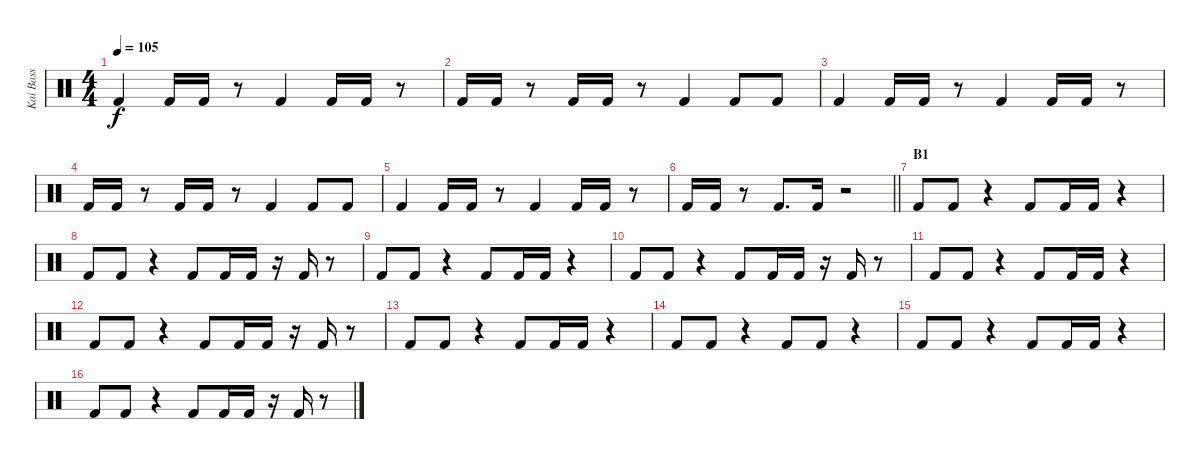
\track ("Kai Bass" "Kai Bass") {instrument percussion}
\staff {score}
\articulation defaults
\ts (4 4)
\tempo 105
\clef neutral
\ks c "Kick (hit) 2".4{dy f} "Kick (hit) 2".16 "Kick (hit) 2".16
r.8 "Kick (hit) 2".4 "Kick (hit) 2".16 "Kick (hit) 2".16 r.8 |
"Kick (hit) 2".16 "Kick (hit) 2".16 r.8 "Kick (hit) 2".16 "Kick (hit) 2".16 r.8 "Kick (hit) 2".4 "Kick (hit) 2".8 "Kick (hit) 2".8 |
"Kick (hit) 2".4 "Kick (hit) 2".16 "Kick (hit) 2".16 r.8 "Kick (hit) 2".4 "Kick (hit) 2".16 "Kick (hit) 2".16 r.8 |
"Kick (hit) 2".16 "Kick (hit) 2".16 r.8 "Kick (hit) 2".16 "Kick (hit) 2".16 r.8 "Kick (hit) 2".4 "Kick (hit) 2".8 "Kick (hit) 2".8 |
"Kick (hit) 2".4 "Kick (hit) 2".16 "Kick (hit) 2".16 r.8 "Kick (hit) 2".4 "Kick (hit) 2".16 "Kick (hit) 2".16 r.8 |
\barLineRight lightlight "Kick (hit) 2".16 "Kick (hit) 2".16
r.8 "Kick (hit) 2".8{d} "Kick (hit) 2".16 r.2 |
\section ("" "B1")
"Kick (hit) 2".8 "Kick (hit) 2".8 r.4 "Kick (hit) 2".8 "Kick (hit) 2".16 "Kick (hit) 2".16 r.4 |
"Kick (hit) 2".8 "Kick (hit) 2".8 r.4 "Kick (hit) 2".8 "Kick (hit) 2".16 "Kick (hit) 2".16 r.16 "Kick (hit) 2".16 r.8 |
"Kick (hit) 2".8 "Kick (hit) 2".8 r.4 "Kick (hit) 2".8 "Kick (hit) 2".16 "Kick (hit) 2".16 r.4 |
"Kick (hit) 2".8 "Kick (hit) 2".8 r.4 "Kick (hit) 2".8 "Kick (hit) 2".16 "Kick (hit) 2".16 r.16 "Kick (hit) 2".16 r.8 |
"Kick (hit) 2".8 "Kick (hit) 2".8 r.4 "Kick (hit) 2".8 "Kick (hit) 2".16 "Kick (hit) 2".16 r.4 |
"Kick (hit) 2".8 "Kick (hit) 2".8 r.4 "Kick (hit) 2".8 "Kick (hit) 2".16 "Kick (hit) 2".16 r.16 "Kick (hit) 2".16 r.8 |
"Kick (hit) 2".8 "Kick (hit) 2".8 r.4 "Kick (hit) 2".8 "Kick (hit) 2".16 "Kick (hit) 2".16 r.4 |
"Kick (hit) 2".8 "Kick (hit) 2".8 r.4 "Kick (hit) 2".8 "Kick (hit) 2".8 r.4 |
"Kick (hit) 2".8 "Kick (hit) 2".8 r.4 "Kick (hit) 2".8 "Kick (hit) 2".16 "Kick (hit) 2".16 r.4 |
"Kick (hit) 2".8 "Kick (hit) 2".8 r.4 "Kick (hit) 2".8 "Kick (hit) 2".16 "Kick (hit) 2".16 r.16 "Kick (hit) 2".16 r.8
